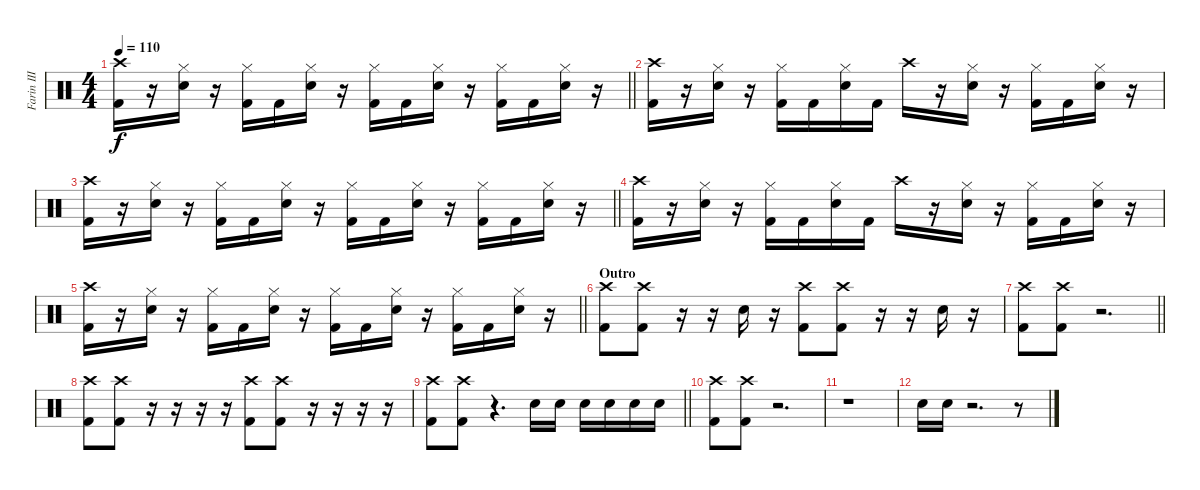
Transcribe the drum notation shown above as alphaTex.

\track ("Farin III" "Farin III") {instrument percussion}
\staff {score}
\articulation defaults
\ts (4 4)
\tempo 110
\clef neutral
\barLineRight lightlight
\ks c
("Crash high (hit)" "Kick (hit) 2").16{dy f} r.16 ("Hi-Hat (closed)" "Snare (hit) 2").16 r.16 ("Hi-Hat (closed)" "Kick (hit) 2").16 "Kick (hit) 2".16 ("Hi-Hat (closed)" "Snare (hit) 2").16 r.16 ("Hi-Hat (closed)" "Kick (hit) 2").16 "Kick (hit) 2".16 ("Hi-Hat (closed)" "Snare (hit) 2").16 r.16 ("Hi-Hat (closed)" "Kick (hit) 2").16 "Kick (hit) 2".16 ("Hi-Hat (closed)" "Snare (hit) 2").16 r.16 |
("Crash high (hit)" "Kick (hit) 2").16 r.16 ("Hi-Hat (closed)" "Snare (hit) 2").16 r.16 ("Hi-Hat (closed)" "Kick (hit) 2").16 "Kick (hit) 2".16 ("Hi-Hat (closed)" "Snare (hit) 2").16 "Kick (hit) 2".16 "Crash high (hit)".16 r.16 ("Hi-Hat (closed)" "Snare (hit) 2").16 r.16 ("Hi-Hat (closed)" "Kick (hit) 2").16 "Kick (hit) 2".16 ("Hi-Hat (closed)" "Snare (hit) 2").16 r.16 |
\barLineRight lightlight
("Crash high (hit)" "Kick (hit) 2").16 r.16 ("Hi-Hat (closed)" "Snare (hit) 2").16 r.16 ("Hi-Hat (closed)" "Kick (hit) 2").16 "Kick (hit) 2".16 ("Hi-Hat (closed)" "Snare (hit) 2").16 r.16 ("Hi-Hat (closed)" "Kick (hit) 2").16 "Kick (hit) 2".16 ("Hi-Hat (closed)" "Snare (hit) 2").16 r.16 ("Hi-Hat (closed)" "Kick (hit) 2").16 "Kick (hit) 2".16 ("Hi-Hat (closed)" "Snare (hit) 2").16 r.16 |
("Crash high (hit)" "Kick (hit) 2").16 r.16 ("Hi-Hat (closed)" "Snare (hit) 2").16 r.16 ("Hi-Hat (closed)" "Kick (hit) 2").16 "Kick (hit) 2".16 ("Hi-Hat (closed)" "Snare (hit) 2").16 "Kick (hit) 2".16 "Crash high (hit)".16 r.16 ("Hi-Hat (closed)" "Snare (hit) 2").16 r.16 ("Hi-Hat (closed)" "Kick (hit) 2").16 "Kick (hit) 2".16 ("Hi-Hat (closed)" "Snare (hit) 2").16 r.16 |
\barLineRight lightlight
("Crash high (hit)" "Kick (hit) 2").16 r.16 ("Hi-Hat (closed)" "Snare (hit) 2").16 r.16 ("Hi-Hat (closed)" "Kick (hit) 2").16 "Kick (hit) 2".16 ("Hi-Hat (closed)" "Snare (hit) 2").16 r.16 ("Hi-Hat (closed)" "Kick (hit) 2").16 "Kick (hit) 2".16 ("Hi-Hat (closed)" "Snare (hit) 2").16 r.16 ("Hi-Hat (closed)" "Kick (hit) 2").16 "Kick (hit) 2".16 ("Hi-Hat (closed)" "Snare (hit) 2").16 r.16 |
\section ("" "Outro")
("Crash high (hit)" "Kick (hit) 2").8 ("Crash high (hit)" "Kick (hit) 2").8 r.16 r.16 "Snare (hit) 2".16 r.16 ("Crash high (hit)" "Kick (hit) 2").8 ("Crash high (hit)" "Kick (hit) 2").8 r.16 r.16 "Snare (hit) 2".16 r.16 |
\barLineRight lightlight
("Crash high (hit)" "Kick (hit) 2").8 ("Crash high (hit)" "Kick (hit) 2").8 r.2{d} |
("Crash high (hit)" "Kick (hit) 2").8 ("Crash high (hit)" "Kick (hit) 2").8 r.16 r.16 r.16 r.16 ("Crash high (hit)" "Kick (hit) 2").8 ("Crash high (hit)" "Kick (hit) 2").8 r.16 r.16 r.16 r.16 |
\barLineRight lightlight
("Crash high (hit)" "Kick (hit) 2").8 ("Crash high (hit)" "Kick (hit) 2").8 r.4{d} "Snare (hit) 2".16 "Snare (hit) 2".16 "Snare (hit) 2".16 "Snare (hit) 2".16 "Snare (hit) 2".16 "Snare (hit) 2".16 |
("Crash high (hit)" "Kick (hit) 2").8 ("Crash high (hit)" "Kick (hit) 2").8 r.2{d} |
r.1 |
"Snare (hit) 2".16 "Snare (hit) 2".16 r.2{d} r.8
